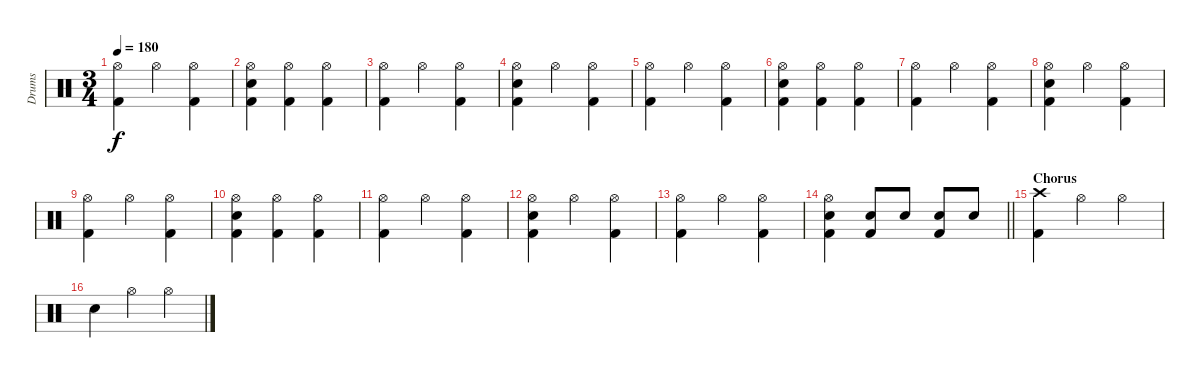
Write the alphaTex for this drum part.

\track ("Drums" "Drums") {instrument percussion}
\staff {score}
\articulation defaults
\ts (3 4)
\tempo 180
\clef neutral
\ks c
("Hi-Hat (open)" "Kick (hit) 2").4{dy f} "Hi-Hat (open)".4 ("Kick (hit) 2" "Hi-Hat (open)").4 |
("Hi-Hat (open)" "Snare (hit) 2" "Kick (hit) 2").4 ("Hi-Hat (open)" "Kick (hit) 2").4 ("Hi-Hat (open)" "Kick (hit) 2").4 |
("Hi-Hat (open)" "Kick (hit) 2").4 "Hi-Hat (open)".4 ("Hi-Hat (open)" "Kick (hit) 2").4 |
("Hi-Hat (open)" "Snare (hit) 2" "Kick (hit) 2").4 "Hi-Hat (open)".4 ("Hi-Hat (open)" "Kick (hit) 2").4 |
("Hi-Hat (open)" "Kick (hit) 2").4 "Hi-Hat (open)".4 ("Kick (hit) 2" "Hi-Hat (open)").4 |
("Hi-Hat (open)" "Snare (hit) 2" "Kick (hit) 2").4 ("Hi-Hat (open)" "Kick (hit) 2").4 ("Hi-Hat (open)" "Kick (hit) 2").4 |
("Hi-Hat (open)" "Kick (hit) 2").4 "Hi-Hat (open)".4 ("Hi-Hat (open)" "Kick (hit) 2").4 |
("Hi-Hat (open)" "Snare (hit) 2" "Kick (hit) 2").4 "Hi-Hat (open)".4 ("Hi-Hat (open)" "Kick (hit) 2").4 |
("Hi-Hat (open)" "Kick (hit) 2").4 "Hi-Hat (open)".4 ("Kick (hit) 2" "Hi-Hat (open)").4 |
("Hi-Hat (open)" "Snare (hit) 2" "Kick (hit) 2").4 ("Hi-Hat (open)" "Kick (hit) 2").4 ("Hi-Hat (open)" "Kick (hit) 2").4 |
("Hi-Hat (open)" "Kick (hit) 2").4 "Hi-Hat (open)".4 ("Hi-Hat (open)" "Kick (hit) 2").4 |
("Hi-Hat (open)" "Snare (hit) 2" "Kick (hit) 2").4 "Hi-Hat (open)".4 ("Hi-Hat (open)" "Kick (hit) 2").4 |
("Hi-Hat (open)" "Kick (hit) 2").4 "Hi-Hat (open)".4 ("Kick (hit) 2" "Hi-Hat (open)").4 |
\barLineRight lightlight
("Hi-Hat (open)" "Snare (hit) 2" "Kick (hit) 2").4 ("Snare (hit) 2" "Kick (hit) 2").8 "Snare (hit) 2".8 ("Snare (hit) 2" "Kick (hit) 2").8 "Snare (hit) 2".8 |
\section ("" "Chorus")
("Crash high (hit)" "Kick (hit) 2").4 "Hi-Hat (open)".4 "Hi-Hat (open)".4 |
"Snare (hit) 2".4 "Hi-Hat (open)".4 "Hi-Hat (open)".4
